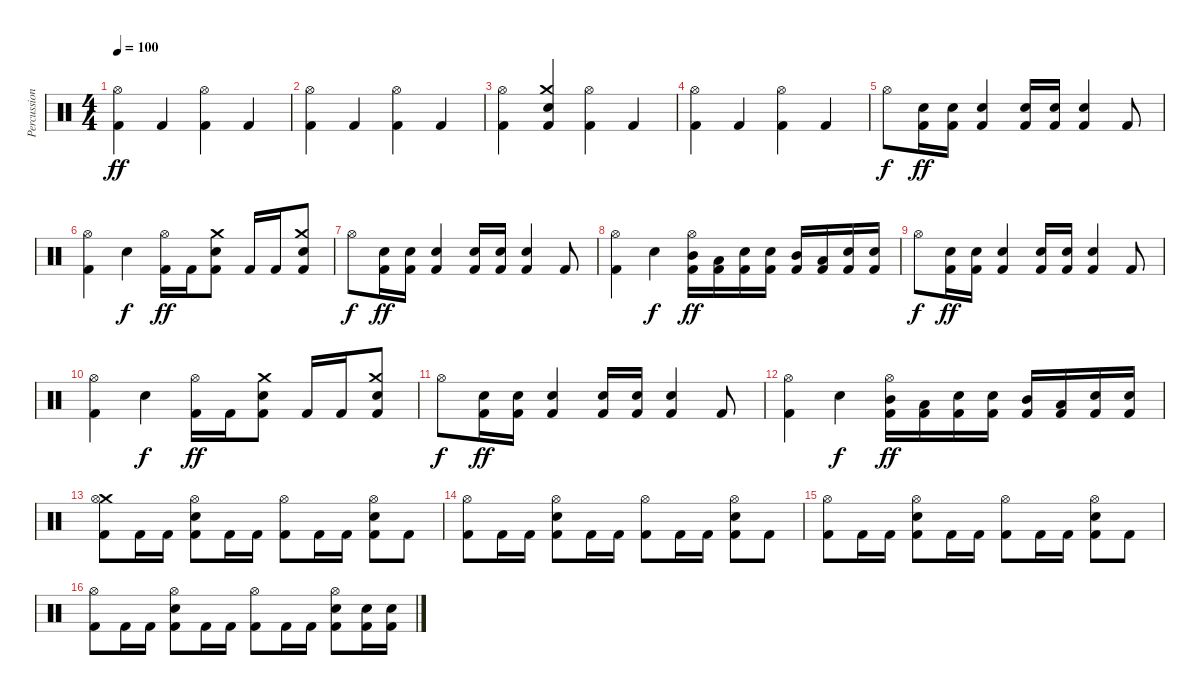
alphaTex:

\track ("Percussion" "Percussion") {instrument percussion}
\staff {score}
\articulation defaults
\ts (4 4)
\tempo 100
\clef neutral
\ks c
("Hi-Hat (open)" "Kick (hit) 2").4{dy ff} "Kick (hit) 2".4 ("Hi-Hat (open)" "Kick (hit) 2").4 "Kick (hit) 2".4 |
("Hi-Hat (open)" "Kick (hit) 2").4 "Kick (hit) 2".4 ("Hi-Hat (open)" "Kick (hit) 2").4 "Kick (hit) 2".4 |
("Hi-Hat (open)" "Kick (hit) 2").4 ("Crash medium (hit)" "Electric Snare (hit)" "Kick (hit) 2").4 ("Hi-Hat (open)" "Kick (hit) 2").4 "Kick (hit) 2".4 |
("Hi-Hat (open)" "Kick (hit) 2").4 "Kick (hit) 2".4 ("Hi-Hat (open)" "Kick (hit) 2").4 "Kick (hit) 2".4 |
"Hi-Hat (open)".8{dy f} ("Electric Snare (hit)" "Kick (hit) 2").16{dy ff} ("Electric Snare (hit)" "Kick (hit) 2").16 ("Electric Snare (hit)" "Kick (hit) 2").4 ("Electric Snare (hit)" "Kick (hit) 2").16 ("Electric Snare (hit)" "Kick (hit) 2").16 ("Electric Snare (hit)" "Kick (hit) 2").4 "Kick (hit) 2".8 |
("Hi-Hat (open)" "Kick (hit) 2").4 "Electric Snare (hit)".4{dy f} ("Hi-Hat (open)" "Kick (hit) 2").16{dy ff} "Kick (hit) 2".16 ("Crash medium (hit)" "Electric Snare (hit)" "Kick (hit) 2").8 "Kick (hit) 2".16 "Kick (hit) 2".16 ("Crash medium (hit)" "Electric Snare (hit)" "Kick (hit) 2").8 |
"Hi-Hat (open)".8{dy f} ("Electric Snare (hit)" "Kick (hit) 2").16{dy ff} ("Electric Snare (hit)" "Kick (hit) 2").16 ("Electric Snare (hit)" "Kick (hit) 2").4 ("Electric Snare (hit)" "Kick (hit) 2").16 ("Electric Snare (hit)" "Kick (hit) 2").16 ("Electric Snare (hit)" "Kick (hit) 2").4 "Kick (hit) 2".8 |
("Hi-Hat (open)" "Kick (hit) 2").4 "Electric Snare (hit)".4{dy f} ("Hi-Hat (open)" "Mid Tom (hit)" "Kick (hit) 2").16{dy ff} ("Low Tom (hit)" "Kick (hit) 2").16 ("Electric Snare (hit)" "Kick (hit) 2").16 ("Electric Snare (hit)" "Kick (hit) 2").16 ("Mid Tom (hit)" "Kick (hit) 2").16 ("Low Tom (hit)" "Kick (hit) 2").16 ("Electric Snare (hit)" "Kick (hit) 2").16 ("Electric Snare (hit)" "Kick (hit) 2").16 |
"Hi-Hat (open)".8{dy f} ("Electric Snare (hit)" "Kick (hit) 2").16{dy ff} ("Electric Snare (hit)" "Kick (hit) 2").16 ("Electric Snare (hit)" "Kick (hit) 2").4 ("Electric Snare (hit)" "Kick (hit) 2").16 ("Electric Snare (hit)" "Kick (hit) 2").16 ("Electric Snare (hit)" "Kick (hit) 2").4 "Kick (hit) 2".8 |
("Hi-Hat (open)" "Kick (hit) 2").4 "Electric Snare (hit)".4{dy f} ("Hi-Hat (open)" "Kick (hit) 2").16{dy ff} "Kick (hit) 2".16 ("Crash medium (hit)" "Electric Snare (hit)" "Kick (hit) 2").8 "Kick (hit) 2".16 "Kick (hit) 2".16 ("Crash medium (hit)" "Electric Snare (hit)" "Kick (hit) 2").8 |
"Hi-Hat (open)".8{dy f} ("Electric Snare (hit)" "Kick (hit) 2").16{dy ff} ("Electric Snare (hit)" "Kick (hit) 2").16 ("Electric Snare (hit)" "Kick (hit) 2").4 ("Electric Snare (hit)" "Kick (hit) 2").16 ("Electric Snare (hit)" "Kick (hit) 2").16 ("Electric Snare (hit)" "Kick (hit) 2").4 "Kick (hit) 2".8 |
("Hi-Hat (open)" "Kick (hit) 2").4 "Electric Snare (hit)".4{dy f} ("Hi-Hat (open)" "Mid Tom (hit)" "Kick (hit) 2").16{dy ff} ("Low Tom (hit)" "Kick (hit) 2").16 ("Electric Snare (hit)" "Kick (hit) 2").16 ("Electric Snare (hit)" "Kick (hit) 2").16 ("Mid Tom (hit)" "Kick (hit) 2").16 ("Low Tom (hit)" "Kick (hit) 2").16 ("Electric Snare (hit)" "Kick (hit) 2").16 ("Electric Snare (hit)" "Kick (hit) 2").16 |
("Crash medium (hit)" "Hi-Hat (open)" "Kick (hit) 2").8 "Kick (hit) 2".16 "Kick (hit) 2".16 ("Hi-Hat (open)" "Electric Snare (hit)" "Kick (hit) 2").8 "Kick (hit) 2".16 "Kick (hit) 2".16 ("Hi-Hat (open)" "Kick (hit) 2").8 "Kick (hit) 2".16 "Kick (hit) 2".16 ("Hi-Hat (open)" "Electric Snare (hit)" "Kick (hit) 2").8 "Kick (hit) 2".8 |
("Hi-Hat (open)" "Kick (hit) 2").8 "Kick (hit) 2".16 "Kick (hit) 2".16 ("Hi-Hat (open)" "Electric Snare (hit)" "Kick (hit) 2").8 "Kick (hit) 2".16 "Kick (hit) 2".16 ("Hi-Hat (open)" "Kick (hit) 2").8 "Kick (hit) 2".16 "Kick (hit) 2".16 ("Hi-Hat (open)" "Electric Snare (hit)" "Kick (hit) 2").8 "Kick (hit) 2".8 |
("Hi-Hat (open)" "Kick (hit) 2").8 "Kick (hit) 2".16 "Kick (hit) 2".16 ("Hi-Hat (open)" "Electric Snare (hit)" "Kick (hit) 2").8 "Kick (hit) 2".16 "Kick (hit) 2".16 ("Hi-Hat (open)" "Kick (hit) 2").8 "Kick (hit) 2".16 "Kick (hit) 2".16 ("Hi-Hat (open)" "Electric Snare (hit)" "Kick (hit) 2").8 "Kick (hit) 2".8 |
("Hi-Hat (open)" "Kick (hit) 2").8 "Kick (hit) 2".16 "Kick (hit) 2".16 ("Hi-Hat (open)" "Electric Snare (hit)" "Kick (hit) 2").8 "Kick (hit) 2".16 "Kick (hit) 2".16 ("Hi-Hat (open)" "Kick (hit) 2").8 "Kick (hit) 2".16 "Kick (hit) 2".16 ("Hi-Hat (open)" "Electric Snare (hit)" "Kick (hit) 2").8 ("Electric Snare (hit)" "Kick (hit) 2").16 ("Electric Snare (hit)" "Kick (hit) 2").16
